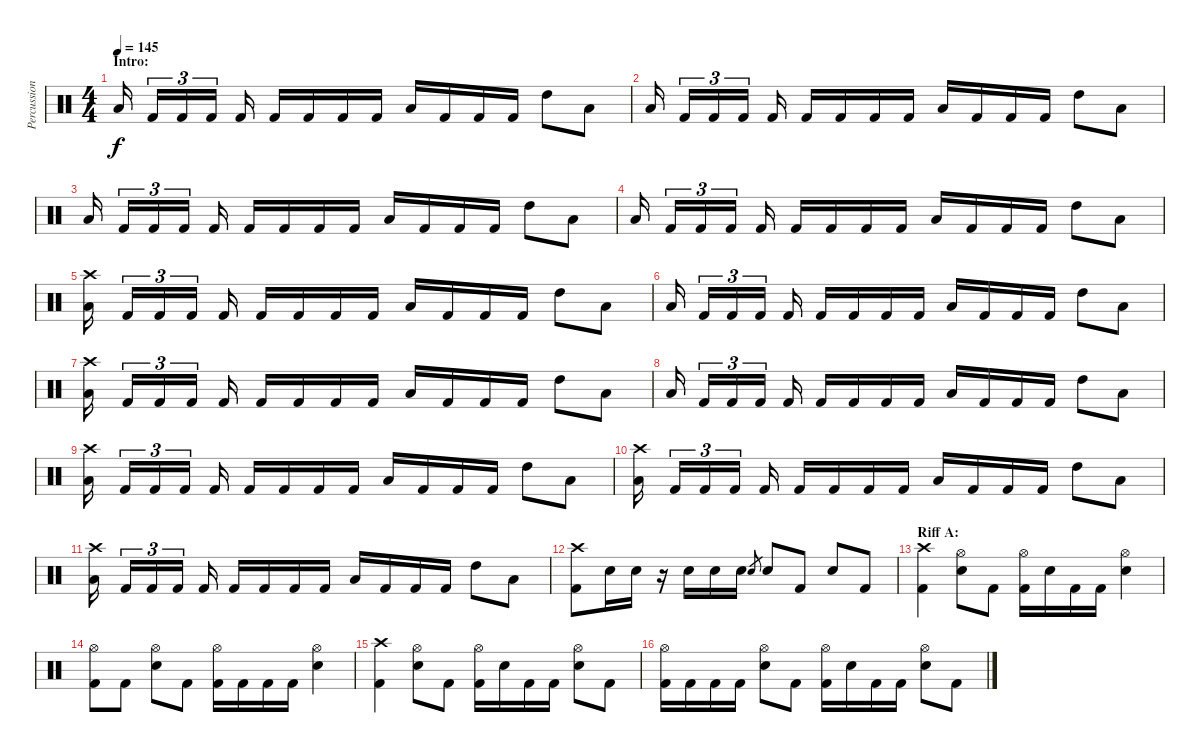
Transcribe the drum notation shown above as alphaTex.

\track ("Percussion" "Percussion") {instrument percussion}
\staff {score}
\articulation defaults
\ts (4 4)
\section ("" "Intro:")
\tempo 145
\clef neutral
\ks c "Low Tom (hit)".16{dy f} "Kick (hit) 2".16{tu (3 2)} "Kick (hit) 2".16{tu (3 2)} "Kick (hit) 2".16{tu (3 2)} "Kick (hit) 2".16 "Kick (hit) 2".16 "Kick (hit) 2".16 "Kick (hit) 2".16 "Kick (hit) 2".16 "Low Tom (hit)".16 "Kick (hit) 2".16 "Kick (hit) 2".16 "Kick (hit) 2".16 "High Tom (hit)".8 "Low Tom (hit)".8
|
"Low Tom (hit)".16 "Kick (hit) 2".16{tu (3 2)} "Kick (hit) 2".16{tu (3 2)} "Kick (hit) 2".16{tu (3 2)} "Kick (hit) 2".16 "Kick (hit) 2".16 "Kick (hit) 2".16 "Kick (hit) 2".16 "Kick (hit) 2".16 "Low Tom (hit)".16 "Kick (hit) 2".16 "Kick (hit) 2".16 "Kick (hit) 2".16 "High Tom (hit)".8 "Low Tom (hit)".8 |
"Low Tom (hit)".16 "Kick (hit) 2".16{tu (3 2)} "Kick (hit) 2".16{tu (3 2)} "Kick (hit) 2".16{tu (3 2)} "Kick (hit) 2".16 "Kick (hit) 2".16 "Kick (hit) 2".16 "Kick (hit) 2".16 "Kick (hit) 2".16 "Low Tom (hit)".16 "Kick (hit) 2".16 "Kick (hit) 2".16 "Kick (hit) 2".16 "High Tom (hit)".8 "Low Tom (hit)".8 |
"Low Tom (hit)".16 "Kick (hit) 2".16{tu (3 2)} "Kick (hit) 2".16{tu (3 2)} "Kick (hit) 2".16{tu (3 2)} "Kick (hit) 2".16 "Kick (hit) 2".16 "Kick (hit) 2".16 "Kick (hit) 2".16 "Kick (hit) 2".16 "Low Tom (hit)".16 "Kick (hit) 2".16 "Kick (hit) 2".16 "Kick (hit) 2".16 "High Tom (hit)".8 "Low Tom (hit)".8 |
("Crash high (hit)" "Low Tom (hit)").16 "Kick (hit) 2".16{tu (3 2)} "Kick (hit) 2".16{tu (3 2)} "Kick (hit) 2".16{tu (3 2)} "Kick (hit) 2".16 "Kick (hit) 2".16 "Kick (hit) 2".16 "Kick (hit) 2".16 "Kick (hit) 2".16 "Low Tom (hit)".16 "Kick (hit) 2".16 "Kick (hit) 2".16 "Kick (hit) 2".16 "High Tom (hit)".8 "Low Tom (hit)".8 |
"Low Tom (hit)".16 "Kick (hit) 2".16{tu (3 2)} "Kick (hit) 2".16{tu (3 2)} "Kick (hit) 2".16{tu (3 2)} "Kick (hit) 2".16 "Kick (hit) 2".16 "Kick (hit) 2".16 "Kick (hit) 2".16 "Kick (hit) 2".16 "Low Tom (hit)".16 "Kick (hit) 2".16 "Kick (hit) 2".16 "Kick (hit) 2".16 "High Tom (hit)".8 "Low Tom (hit)".8 |
("Crash high (hit)" "Low Tom (hit)").16 "Kick (hit) 2".16{tu (3 2)} "Kick (hit) 2".16{tu (3 2)} "Kick (hit) 2".16{tu (3 2)} "Kick (hit) 2".16 "Kick (hit) 2".16 "Kick (hit) 2".16 "Kick (hit) 2".16 "Kick (hit) 2".16 "Low Tom (hit)".16 "Kick (hit) 2".16 "Kick (hit) 2".16 "Kick (hit) 2".16 "High Tom (hit)".8 "Low Tom (hit)".8 |
"Low Tom (hit)".16 "Kick (hit) 2".16{tu (3 2)} "Kick (hit) 2".16{tu (3 2)} "Kick (hit) 2".16{tu (3 2)} "Kick (hit) 2".16 "Kick (hit) 2".16 "Kick (hit) 2".16 "Kick (hit) 2".16 "Kick (hit) 2".16 "Low Tom (hit)".16 "Kick (hit) 2".16 "Kick (hit) 2".16 "Kick (hit) 2".16 "High Tom (hit)".8 "Low Tom (hit)".8 |
("Crash high (hit)" "Low Tom (hit)").16 "Kick (hit) 2".16{tu (3 2)} "Kick (hit) 2".16{tu (3 2)} "Kick (hit) 2".16{tu (3 2)} "Kick (hit) 2".16 "Kick (hit) 2".16 "Kick (hit) 2".16 "Kick (hit) 2".16 "Kick (hit) 2".16 "Low Tom (hit)".16 "Kick (hit) 2".16 "Kick (hit) 2".16 "Kick (hit) 2".16 "High Tom (hit)".8 "Low Tom (hit)".8 |
("Crash high (hit)" "Low Tom (hit)").16 "Kick (hit) 2".16{tu (3 2)} "Kick (hit) 2".16{tu (3 2)} "Kick (hit) 2".16{tu (3 2)} "Kick (hit) 2".16 "Kick (hit) 2".16 "Kick (hit) 2".16 "Kick (hit) 2".16 "Kick (hit) 2".16 "Low Tom (hit)".16 "Kick (hit) 2".16 "Kick (hit) 2".16 "Kick (hit) 2".16 "High Tom (hit)".8 "Low Tom (hit)".8 |
("Crash high (hit)" "Low Tom (hit)").16 "Kick (hit) 2".16{tu (3 2)} "Kick (hit) 2".16{tu (3 2)} "Kick (hit) 2".16{tu (3 2)} "Kick (hit) 2".16 "Kick (hit) 2".16 "Kick (hit) 2".16 "Kick (hit) 2".16 "Kick (hit) 2".16 "Low Tom (hit)".16 "Kick (hit) 2".16 "Kick (hit) 2".16 "Kick (hit) 2".16 "High Tom (hit)".8 "Low Tom (hit)".8 |
("Crash high (hit)" "Kick (hit) 2").8 "Electric Snare (hit)".16 "Electric Snare (hit)".16 r.16 "Electric Snare (hit)".16 "Electric Snare (hit)".16 "Electric Snare (hit)".16 "Electric Snare (hit)".8{gr} "Electric Snare (hit)".8 "Kick (hit) 2".8 "Electric Snare (hit)".8 "Kick (hit) 2".8 |
\section ("" "Riff A:")
("Crash high (hit)" "Kick (hit) 2").4 ("Hi-Hat (open)" "Electric Snare (hit)").8 "Kick (hit) 2".8 ("Hi-Hat (open)" "Kick (hit) 2").16 "Electric Snare (hit)".16 "Kick (hit) 2".16 "Kick (hit) 2".16 ("Hi-Hat (open)" "Electric Snare (hit)").4 |
("Hi-Hat (open)" "Kick (hit) 2").8 "Kick (hit) 2".8 ("Hi-Hat (open)" "Electric Snare (hit)").8 "Kick (hit) 2".8 ("Hi-Hat (open)" "Kick (hit) 2").16 "Kick (hit) 2".16 "Kick (hit) 2".16 "Kick (hit) 2".16 ("Hi-Hat (open)" "Electric Snare (hit)").4 |
("Crash high (hit)" "Kick (hit) 2").4 ("Hi-Hat (open)" "Electric Snare (hit)").8 "Kick (hit) 2".8 ("Hi-Hat (open)" "Kick (hit) 2").16 "Electric Snare (hit)".16 "Kick (hit) 2".16 "Kick (hit) 2".16 ("Hi-Hat (open)" "Electric Snare (hit)").8 "Kick (hit) 2".8 |
("Hi-Hat (open)" "Kick (hit) 2").16 "Kick (hit) 2".16 "Kick (hit) 2".16 "Kick (hit) 2".16 ("Hi-Hat (open)" "Electric Snare (hit)").8 "Kick (hit) 2".8 ("Hi-Hat (open)" "Kick (hit) 2").16 "Electric Snare (hit)".16 "Kick (hit) 2".16 "Kick (hit) 2".16 ("Hi-Hat (open)" "Electric Snare (hit)").8 "Kick (hit) 2".8
